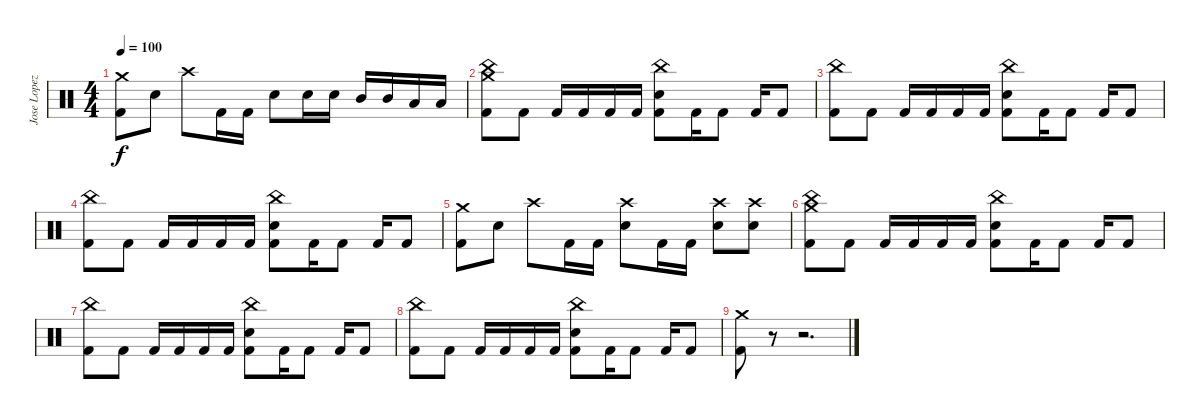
\track ("Jose Lopez" "Jose Lopez") {instrument percussion}
\staff {score}
\articulation defaults
\ts (4 4)
\tempo 100
\clef neutral
\ks c
("Crash medium (hit)" "Kick (hit) 2").8{dy f} "Electric Snare (hit)".8 "Crash high (hit)".8 "Kick (hit) 2".16 "Kick (hit) 2".16 "Electric Snare (hit)".8 "Electric Snare (hit)".16 "Electric Snare (hit)".16 "Mid Tom (hit)".16 "Mid Tom (hit)".16 "Low Tom (hit)".16 "Low Tom (hit)".16 |
("Crash medium (hit)" "China (hit)" "Kick (hit) 2").8 "Kick (hit) 2".8 "Kick (hit) 2".16 "Kick (hit) 2".16 "Kick (hit) 2".16 "Kick (hit) 2".16 ("China (hit)" "Electric Snare (hit)" "Kick (hit) 2").8 "Kick (hit) 2".16 "Kick (hit) 2".8 "Kick (hit) 2".16 "Kick (hit) 2".8 |
("China (hit)" "Kick (hit) 2").8 "Kick (hit) 2".8 "Kick (hit) 2".16 "Kick (hit) 2".16 "Kick (hit) 2".16 "Kick (hit) 2".16 ("China (hit)" "Electric Snare (hit)" "Kick (hit) 2").8 "Kick (hit) 2".16 "Kick (hit) 2".8 "Kick (hit) 2".16 "Kick (hit) 2".8 |
("China (hit)" "Kick (hit) 2").8 "Kick (hit) 2".8 "Kick (hit) 2".16 "Kick (hit) 2".16 "Kick (hit) 2".16 "Kick (hit) 2".16 ("China (hit)" "Electric Snare (hit)" "Kick (hit) 2").8 "Kick (hit) 2".16 "Kick (hit) 2".8 "Kick (hit) 2".16 "Kick (hit) 2".8 |
("Crash medium (hit)" "Kick (hit) 2").8 "Electric Snare (hit)".8 "Crash high (hit)".8 "Kick (hit) 2".16 "Kick (hit) 2".16 ("Crash high (hit)" "Electric Snare (hit)").8 "Kick (hit) 2".16 "Kick (hit) 2".16 ("Crash high (hit)" "Electric Snare (hit)").8 ("Crash high (hit)" "Electric Snare (hit)").8 |
("Crash medium (hit)" "China (hit)" "Kick (hit) 2").8 "Kick (hit) 2".8 "Kick (hit) 2".16 "Kick (hit) 2".16 "Kick (hit) 2".16 "Kick (hit) 2".16 ("China (hit)" "Electric Snare (hit)" "Kick (hit) 2").8 "Kick (hit) 2".16 "Kick (hit) 2".8 "Kick (hit) 2".16 "Kick (hit) 2".8 |
("China (hit)" "Kick (hit) 2").8 "Kick (hit) 2".8 "Kick (hit) 2".16 "Kick (hit) 2".16 "Kick (hit) 2".16 "Kick (hit) 2".16 ("China (hit)" "Electric Snare (hit)" "Kick (hit) 2").8 "Kick (hit) 2".16 "Kick (hit) 2".8 "Kick (hit) 2".16 "Kick (hit) 2".8 |
("China (hit)" "Kick (hit) 2").8 "Kick (hit) 2".8 "Kick (hit) 2".16 "Kick (hit) 2".16 "Kick (hit) 2".16 "Kick (hit) 2".16 ("China (hit)" "Electric Snare (hit)" "Kick (hit) 2").8 "Kick (hit) 2".16 "Kick (hit) 2".8 "Kick (hit) 2".16 "Kick (hit) 2".8 |
("Crash medium (hit)" "Kick (hit) 2").8 r.8 r.2{d}
